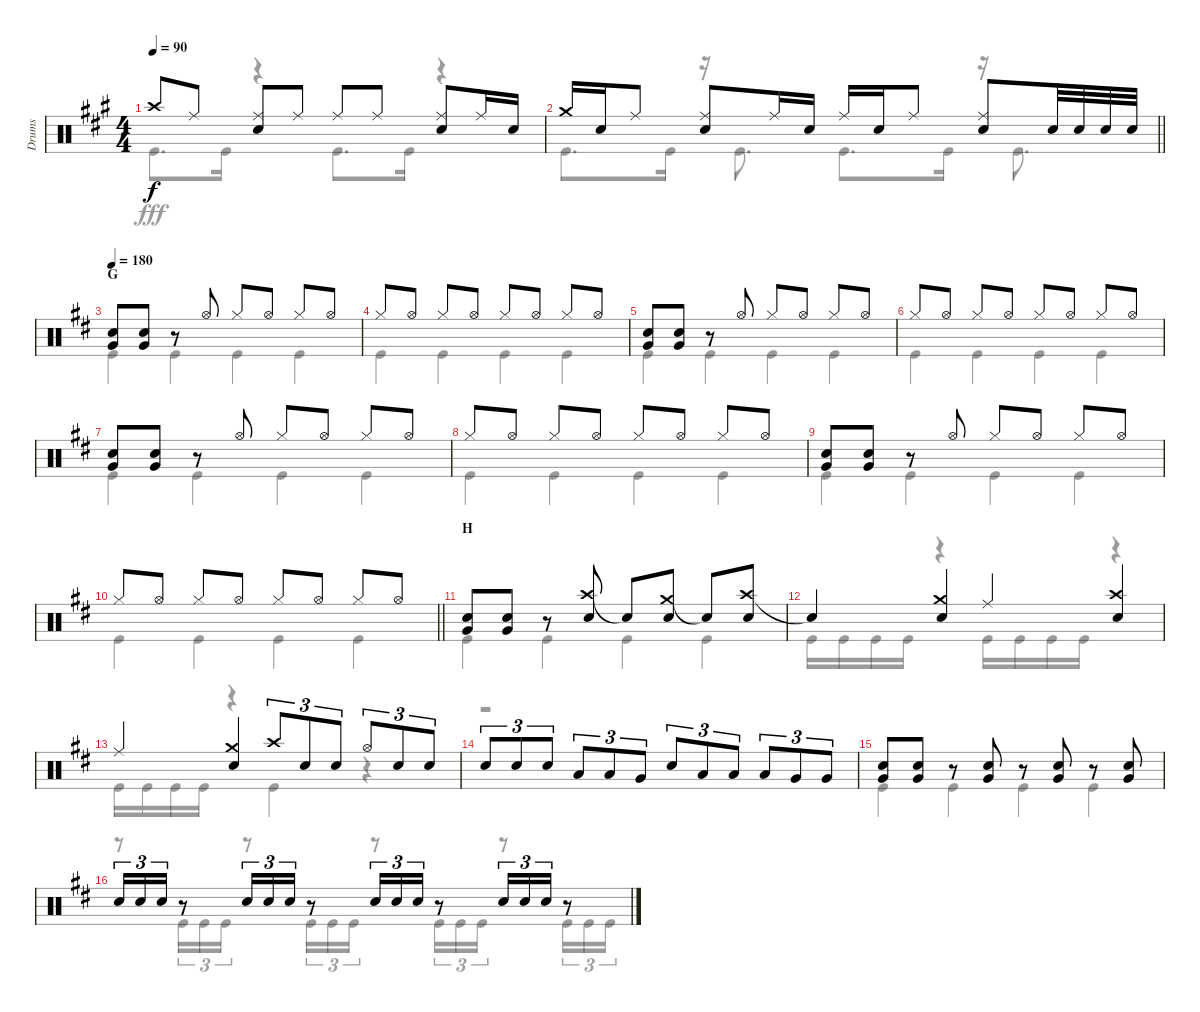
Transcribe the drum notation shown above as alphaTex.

\track ("Drums" "Drums") {instrument percussion}
\staff {score}
\articulation defaults
\voice
\ts (4 4)
\tempo 90
\clef neutral
\ks a "Crash high (hit)".8{dy f} "Ride (middle)".8
("Ride (middle)" "Snare (hit) 2").8 "Ride (middle)".8 "Ride (middle)".8 "Ride (middle)".8 ("Ride (middle)" "Snare (hit) 2").8 "Ride (middle)".16 "Snare (hit) 2".16 |
\barLineRight lightlight "Crash medium (hit)".16 "Snare (hit) 2".16 "Ride (middle)".8
("Ride (middle)" "Snare (hit) 2").8 "Ride (middle)".16 "Snare (hit) 2".16 "Ride (middle)".16 "Snare (hit) 2".16 "Ride (middle)".8 ("Ride (middle)" "Snare (hit) 2").8 "Snare (hit) 2".32 "Snare (hit) 2".32 "Snare (hit) 2".32 "Snare (hit) 2".32 |
\section ("" "G")
\tempo 180
\ks d
("Snare (hit) 2" "Very Low Tom (hit)").8 ("Snare (hit) 2" "Very Low Tom (hit)").8 r.8 "Hi-Hat (open)".8 "Hi-Hat (closed)".8 "Hi-Hat (open)".8 "Hi-Hat (closed)".8 "Hi-Hat (open)".8 |
"Hi-Hat (closed)".8 "Hi-Hat (open)".8 "Hi-Hat (closed)".8 "Hi-Hat (open)".8 "Hi-Hat (closed)".8 "Hi-Hat (open)".8 "Hi-Hat (closed)".8 "Hi-Hat (open)".8 |
("Snare (hit) 2" "Very Low Tom (hit)").8 ("Snare (hit) 2" "Very Low Tom (hit)").8 r.8 "Hi-Hat (open)".8 "Hi-Hat (closed)".8 "Hi-Hat (open)".8 "Hi-Hat (closed)".8 "Hi-Hat (open)".8 |
"Hi-Hat (closed)".8 "Hi-Hat (open)".8 "Hi-Hat (closed)".8 "Hi-Hat (open)".8 "Hi-Hat (closed)".8 "Hi-Hat (open)".8 "Hi-Hat (closed)".8 "Hi-Hat (open)".8 |
("Snare (hit) 2" "Very Low Tom (hit)").8 ("Snare (hit) 2" "Very Low Tom (hit)").8 r.8 "Hi-Hat (open)".8 "Hi-Hat (closed)".8 "Hi-Hat (open)".8 "Hi-Hat (closed)".8 "Hi-Hat (open)".8 |
"Hi-Hat (closed)".8 "Hi-Hat (open)".8 "Hi-Hat (closed)".8 "Hi-Hat (open)".8 "Hi-Hat (closed)".8 "Hi-Hat (open)".8 "Hi-Hat (closed)".8 "Hi-Hat (open)".8 |
("Snare (hit) 2" "Very Low Tom (hit)").8 ("Snare (hit) 2" "Very Low Tom (hit)").8 r.8 "Hi-Hat (open)".8 "Hi-Hat (closed)".8 "Hi-Hat (open)".8 "Hi-Hat (closed)".8 "Hi-Hat (open)".8 |
\barLineRight lightlight "Hi-Hat (closed)".8 "Hi-Hat (open)".8 "Hi-Hat (closed)".8 "Hi-Hat (open)".8 "Hi-Hat (closed)".8 "Hi-Hat (open)".8 "Hi-Hat (closed)".8 "Hi-Hat (open)".8
|
\section ("" "H")
("Snare (hit) 2" "Very Low Tom (hit)").8 ("Snare (hit) 2" "Very Low Tom (hit)").8 r.8 ("Crash high (hit)" "Snare (hit) 2").8 "Snare (hit)"{t}.8 ("Crash medium (hit)" "Snare (hit) 2").8 "Snare (hit)"{t}.8 ("Crash high (hit)" "Snare (hit) 2").8 |
"Snare (hit)"{t}.4 ("Crash medium (hit)" "Snare (hit) 2").4 "Ride (middle)".4 ("Crash high (hit)" "Snare (hit) 2").4 |
"Ride (middle)".4 ("Crash medium (hit)" "Snare (hit) 2").4 "Crash high (hit)".8{tu (3 2)} "Snare (hit) 2".8{tu (3 2)} "Snare (hit) 2".8{tu (3 2)} "Hi-Hat (open)".8{tu (3 2)} "Snare (hit) 2".8{tu (3 2)} "Snare (hit) 2".8{tu (3 2)} |
"Snare (hit) 2".8{tu (3 2)} "Snare (hit) 2".8{tu (3 2)} "Snare (hit) 2".8{tu (3 2)} "Low Tom (hit)".8{tu (3 2)} "Low Tom (hit)".8{tu (3 2)} "Very Low Tom (hit)".8{tu (3 2)} "Snare (hit) 2".8{tu (3 2)} "Low Tom (hit)".8{tu (3 2)} "Low Tom (hit)".8{tu (3 2)} "Low Tom (hit)".8{tu (3 2)} "Very Low Tom (hit)".8{tu (3 2)} "Very Low Tom (hit)".8{tu (3 2)} |
("Snare (hit) 2" "Very Low Tom (hit)").8 ("Snare (hit) 2" "Very Low Tom (hit)").8 r.8 ("Snare (hit) 2" "Very Low Tom (hit)").8 r.8 ("Snare (hit) 2" "Very Low Tom (hit)").8 r.8 ("Snare (hit) 2" "Very Low Tom (hit)").8 |
"Snare (hit) 2".16{tu (3 2)} "Snare (hit) 2".16{tu (3 2)} "Snare (hit) 2".16{tu (3 2)} r.8 "Snare (hit) 2".16{tu (3 2)} "Snare (hit) 2".16{tu (3 2)} "Snare (hit) 2".16{tu (3 2)} r.8 "Snare (hit) 2".16{tu (3 2)} "Snare (hit) 2".16{tu (3 2)} "Snare (hit) 2".16{tu (3 2)} r.8 "Snare (hit) 2".16{tu (3 2)} "Snare (hit) 2".16{tu (3 2)} "Snare (hit) 2".16{tu (3 2)} r.8
\voice
\clef neutral
\ottava regular
\simile none
\ks a "Kick (hit)".8{d dy fff} "Kick (hit)".16
r.4 "Kick (hit)".8{d} "Kick (hit)".16 r.4 |
\barLineRight lightlight "Kick (hit)".8{d} "Kick (hit)".16
r.16 "Kick (hit)".8{d} "Kick (hit)".8{d} "Kick (hit)".16 r.16 "Kick (hit)".8{d} |
\ks d "Kick (hit)".4 "Kick (hit)".4 "Kick (hit)".4 "Kick (hit)".4
|
"Kick (hit)".4 "Kick (hit)".4 "Kick (hit)".4 "Kick (hit)".4 |
"Kick (hit)".4 "Kick (hit)".4 "Kick (hit)".4 "Kick (hit)".4 |
"Kick (hit)".4 "Kick (hit)".4 "Kick (hit)".4 "Kick (hit)".4 |
"Kick (hit)".4 "Kick (hit)".4 "Kick (hit)".4 "Kick (hit)".4 |
"Kick (hit)".4 "Kick (hit)".4 "Kick (hit)".4 "Kick (hit)".4 |
"Kick (hit)".4 "Kick (hit)".4 "Kick (hit)".4 "Kick (hit)".4 |
\barLineRight lightlight "Kick (hit)".4 "Kick (hit)".4 "Kick (hit)".4 "Kick (hit)".4
|
"Kick (hit)".4 "Kick (hit)".4 "Kick (hit)".4 "Kick (hit)".4 |
"Kick (hit)".16 "Kick (hit)".16 "Kick (hit)".16 "Kick (hit)".16 r.4 "Kick (hit)".16 "Kick (hit)".16 "Kick (hit)".16 "Kick (hit)".16 r.4 |
"Kick (hit)".16 "Kick (hit)".16 "Kick (hit)".16 "Kick (hit)".16 r.4 "Kick (hit)".4 r.4 |
r.1 |
"Kick (hit)".4 "Kick (hit)".4 "Kick (hit)".4 "Kick (hit)".4 |
r.8 "Kick (hit)".16{tu (3 2)} "Kick (hit)".16{tu (3 2)} "Kick (hit)".16{tu (3 2)} r.8 "Kick (hit)".16{tu (3 2)} "Kick (hit)".16{tu (3 2)} "Kick (hit)".16{tu (3 2)} r.8 "Kick (hit)".16{tu (3 2)} "Kick (hit)".16{tu (3 2)} "Kick (hit)".16{tu (3 2)} r.8 "Kick (hit)".16{tu (3 2)} "Kick (hit)".16{tu (3 2)} "Kick (hit)".16{tu (3 2)}
